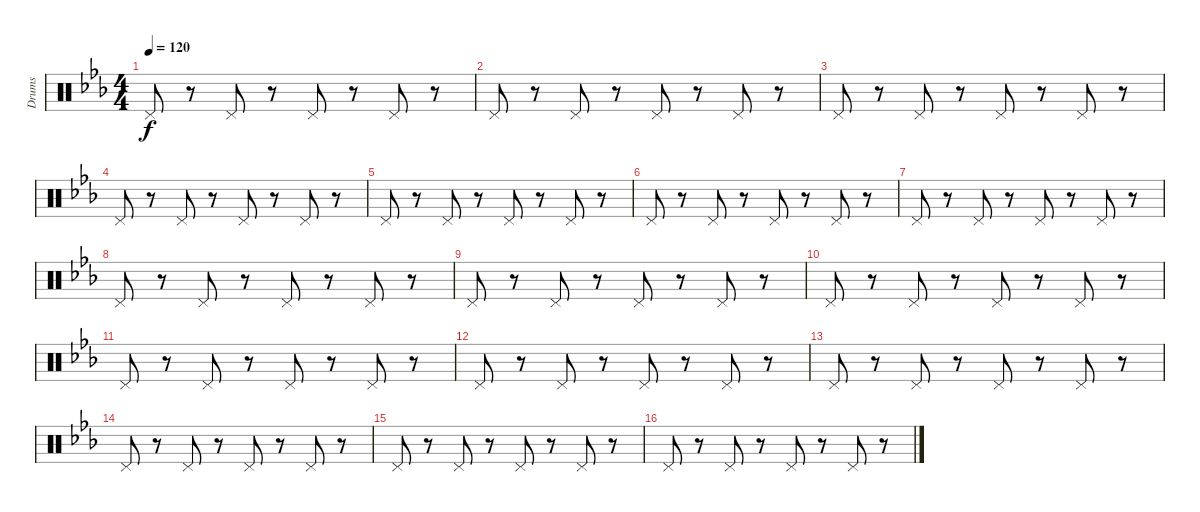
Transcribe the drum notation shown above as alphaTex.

\track ("Drums" "Drums") {instrument percussion}
\staff {score}
\articulation defaults
\ts (4 4)
\tempo 120
\clef neutral
\ks cminor "Pedal Hi-Hat (hit)".8{dy f}
r.8 "Pedal Hi-Hat (hit)".8 r.8 "Pedal Hi-Hat (hit)".8 r.8 "Pedal Hi-Hat (hit)".8 r.8 |
"Pedal Hi-Hat (hit)".8 r.8 "Pedal Hi-Hat (hit)".8 r.8 "Pedal Hi-Hat (hit)".8 r.8 "Pedal Hi-Hat (hit)".8 r.8 |
"Pedal Hi-Hat (hit)".8 r.8 "Pedal Hi-Hat (hit)".8 r.8 "Pedal Hi-Hat (hit)".8 r.8 "Pedal Hi-Hat (hit)".8 r.8 |
"Pedal Hi-Hat (hit)".8 r.8 "Pedal Hi-Hat (hit)".8 r.8 "Pedal Hi-Hat (hit)".8 r.8 "Pedal Hi-Hat (hit)".8 r.8 |
"Pedal Hi-Hat (hit)".8 r.8 "Pedal Hi-Hat (hit)".8 r.8 "Pedal Hi-Hat (hit)".8 r.8 "Pedal Hi-Hat (hit)".8 r.8 |
"Pedal Hi-Hat (hit)".8 r.8 "Pedal Hi-Hat (hit)".8 r.8 "Pedal Hi-Hat (hit)".8 r.8 "Pedal Hi-Hat (hit)".8 r.8 |
"Pedal Hi-Hat (hit)".8 r.8 "Pedal Hi-Hat (hit)".8 r.8 "Pedal Hi-Hat (hit)".8 r.8 "Pedal Hi-Hat (hit)".8 r.8 |
"Pedal Hi-Hat (hit)".8 r.8 "Pedal Hi-Hat (hit)".8 r.8 "Pedal Hi-Hat (hit)".8 r.8 "Pedal Hi-Hat (hit)".8 r.8 |
"Pedal Hi-Hat (hit)".8 r.8 "Pedal Hi-Hat (hit)".8 r.8 "Pedal Hi-Hat (hit)".8 r.8 "Pedal Hi-Hat (hit)".8 r.8 |
"Pedal Hi-Hat (hit)".8 r.8 "Pedal Hi-Hat (hit)".8 r.8 "Pedal Hi-Hat (hit)".8 r.8 "Pedal Hi-Hat (hit)".8 r.8 |
"Pedal Hi-Hat (hit)".8 r.8 "Pedal Hi-Hat (hit)".8 r.8 "Pedal Hi-Hat (hit)".8 r.8 "Pedal Hi-Hat (hit)".8 r.8 |
"Pedal Hi-Hat (hit)".8 r.8 "Pedal Hi-Hat (hit)".8 r.8 "Pedal Hi-Hat (hit)".8 r.8 "Pedal Hi-Hat (hit)".8 r.8 |
"Pedal Hi-Hat (hit)".8 r.8 "Pedal Hi-Hat (hit)".8 r.8 "Pedal Hi-Hat (hit)".8 r.8 "Pedal Hi-Hat (hit)".8 r.8 |
"Pedal Hi-Hat (hit)".8 r.8 "Pedal Hi-Hat (hit)".8 r.8 "Pedal Hi-Hat (hit)".8 r.8 "Pedal Hi-Hat (hit)".8 r.8 |
"Pedal Hi-Hat (hit)".8 r.8 "Pedal Hi-Hat (hit)".8 r.8 "Pedal Hi-Hat (hit)".8 r.8 "Pedal Hi-Hat (hit)".8 r.8 |
"Pedal Hi-Hat (hit)".8 r.8 "Pedal Hi-Hat (hit)".8 r.8 "Pedal Hi-Hat (hit)".8 r.8 "Pedal Hi-Hat (hit)".8 r.8
